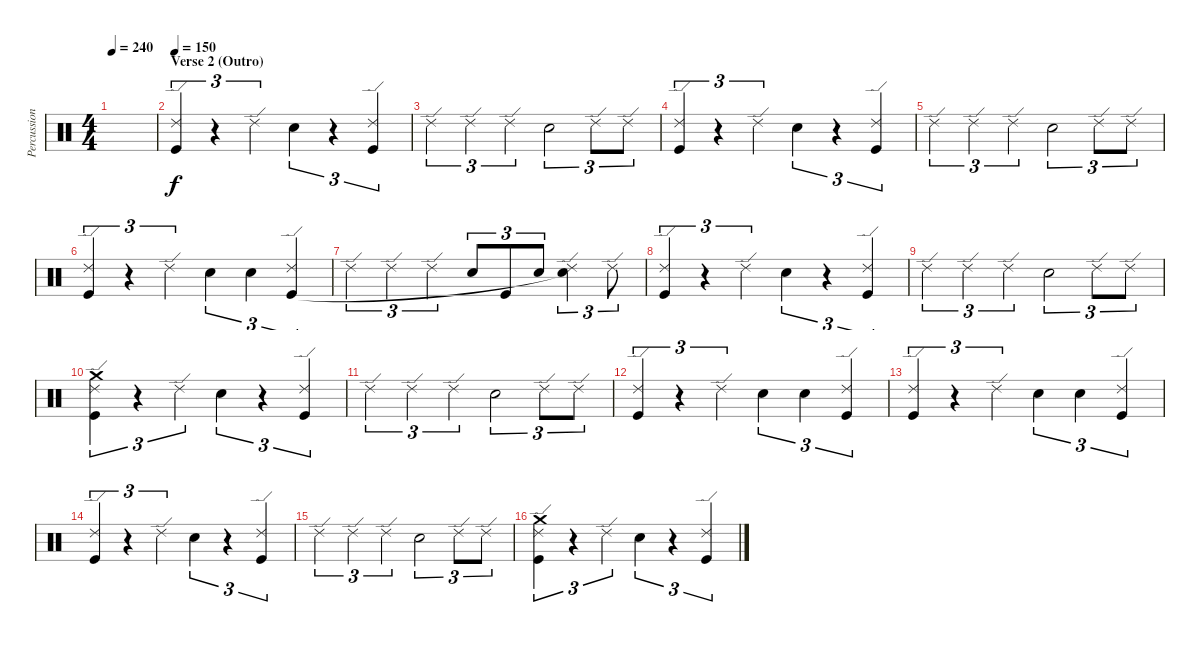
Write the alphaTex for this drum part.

\track ("Percussioni" "Percussion") {instrument percussion}
\staff {score}
\articulation defaults
\ts (4 4)
\tempo 240
\clef neutral
\ks c
|
\section ("" "Verse 2 (Outro)")
\tempo 150
("Ride (edge) 2" "Kick (hit)").4{tu (3 2)} r.4{tu (3 2)} "Ride (edge) 2".4{tu (3 2)} "Electric Snare (hit)".4{tu (3 2)} r.4{tu (3 2)} ("Ride (edge) 2" "Kick (hit)").4{tu (3 2)} |
"Ride (edge) 2".4{tu (3 2)} "Ride (edge) 2".4{tu (3 2)} "Ride (edge) 2".4{tu (3 2)} "Electric Snare (hit)".2{tu (3 2)} "Ride (edge) 2".8{tu (3 2)} "Ride (edge) 2".8{tu (3 2)} |
("Ride (edge) 2" "Kick (hit)").4{tu (3 2)} r.4{tu (3 2)} "Ride (edge) 2".4{tu (3 2)} "Electric Snare (hit)".4{tu (3 2)} r.4{tu (3 2)} ("Ride (edge) 2" "Kick (hit)").4{tu (3 2)} |
"Ride (edge) 2".4{tu (3 2)} "Ride (edge) 2".4{tu (3 2)} "Ride (edge) 2".4{tu (3 2)} "Electric Snare (hit)".2{tu (3 2)} "Ride (edge) 2".8{tu (3 2)} "Ride (edge) 2".8{tu (3 2)} |
("Ride (edge) 2" "Kick (hit)").4{tu (3 2)} r.4{tu (3 2)} "Ride (edge) 2".4{tu (3 2)} "Electric Snare (hit)".4{tu (3 2)} "Electric Snare (hit)".4{tu (3 2)} ("Ride (edge) 2" "Kick (hit)").4{tu (3 2)} |
"Ride (edge) 2".4{tu (3 2)} "Ride (edge) 2".4{tu (3 2)} "Ride (edge) 2".4{tu (3 2)} "Electric Snare (hit)".8{tu (3 2)} "Kick (hit)".8{tu (3 2)} "Electric Snare (hit)".8{tu (3 2)} ("Ride (edge) 2" "Electric Snare (hit)"{t}).4{tu (3 2)} "Ride (edge) 2".8{tu (3 2)} |
("Ride (edge) 2" "Kick (hit)").4{tu (3 2)} r.4{tu (3 2)} "Ride (edge) 2".4{tu (3 2)} "Electric Snare (hit)".4{tu (3 2)} r.4{tu (3 2)} ("Ride (edge) 2" "Kick (hit)").4{tu (3 2)} |
"Ride (edge) 2".4{tu (3 2)} "Ride (edge) 2".4{tu (3 2)} "Ride (edge) 2".4{tu (3 2)} "Electric Snare (hit)".2{tu (3 2)} "Ride (edge) 2".8{tu (3 2)} "Ride (edge) 2".8{tu (3 2)} |
("Ride (edge) 2" "Crash medium (hit)" "Kick (hit)").4{tu (3 2)} r.4{tu (3 2)} "Ride (edge) 2".4{tu (3 2)} "Electric Snare (hit)".4{tu (3 2)} r.4{tu (3 2)} ("Ride (edge) 2" "Kick (hit)").4{tu (3 2)} |
"Ride (edge) 2".4{tu (3 2)} "Ride (edge) 2".4{tu (3 2)} "Ride (edge) 2".4{tu (3 2)} "Electric Snare (hit)".2{tu (3 2)} "Ride (edge) 2".8{tu (3 2)} "Ride (edge) 2".8{tu (3 2)} |
("Ride (edge) 2" "Kick (hit)").4{tu (3 2)} r.4{tu (3 2)} "Ride (edge) 2".4{tu (3 2)} "Electric Snare (hit)".4{tu (3 2)} "Electric Snare (hit)".4{tu (3 2)} ("Ride (edge) 2" "Kick (hit)").4{tu (3 2)} |
("Ride (edge) 2" "Kick (hit)").4{tu (3 2)} r.4{tu (3 2)} "Ride (edge) 2".4{tu (3 2)} "Electric Snare (hit)".4{tu (3 2)} "Electric Snare (hit)".4{tu (3 2)} ("Ride (edge) 2" "Kick (hit)").4{tu (3 2)} |
("Ride (edge) 2" "Kick (hit)").4{tu (3 2)} r.4{tu (3 2)} "Ride (edge) 2".4{tu (3 2)} "Electric Snare (hit)".4{tu (3 2)} r.4{tu (3 2)} ("Ride (edge) 2" "Kick (hit)").4{tu (3 2)} |
"Ride (edge) 2".4{tu (3 2)} "Ride (edge) 2".4{tu (3 2)} "Ride (edge) 2".4{tu (3 2)} "Electric Snare (hit)".2{tu (3 2)} "Ride (edge) 2".8{tu (3 2)} "Ride (edge) 2".8{tu (3 2)} |
("Ride (edge) 2" "Crash medium (hit)" "Kick (hit)").4{tu (3 2)} r.4{tu (3 2)} "Ride (edge) 2".4{tu (3 2)} "Electric Snare (hit)".4{tu (3 2)} r.4{tu (3 2)} ("Ride (edge) 2" "Kick (hit)").4{tu (3 2)}
